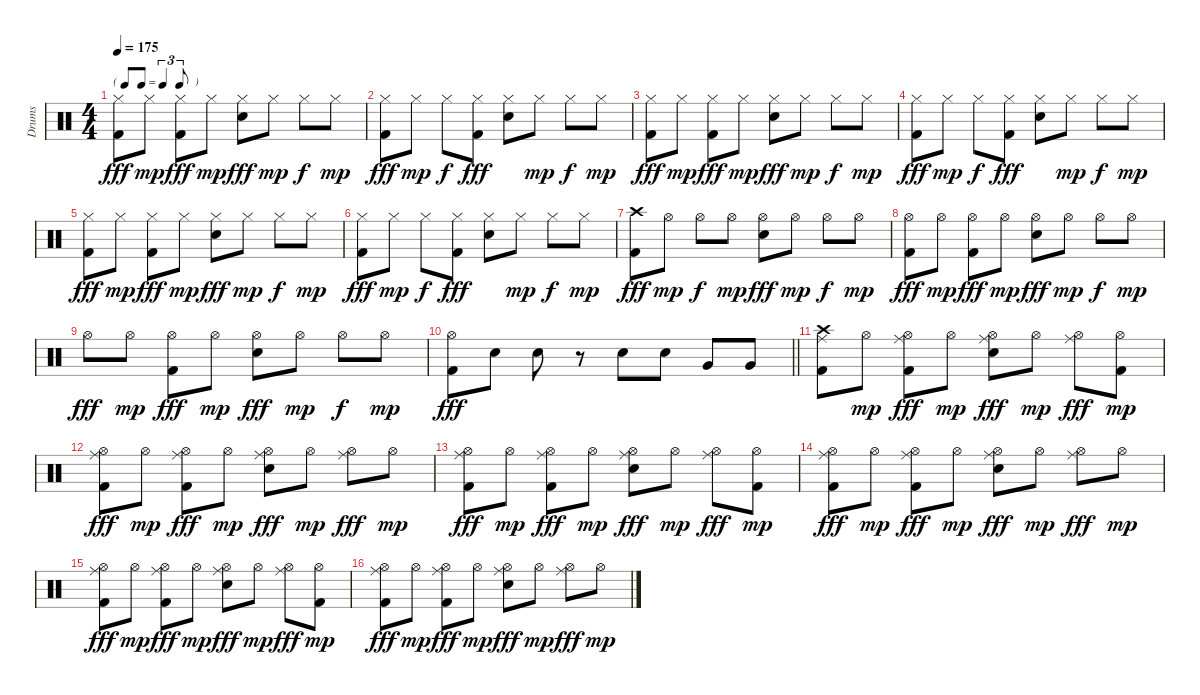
\track ("Drums" "Drums") {instrument percussion}
\staff {score}
\articulation defaults
\ts (4 4)
\tf triplet8th
\tempo 175
\clef neutral
\ks c
("Hi-Hat (closed)" "Kick (hit) 2").8{dy fff} "Hi-Hat (closed)".8{dy mp} ("Hi-Hat (closed)" "Kick (hit) 2").8{dy fff} "Hi-Hat (closed)".8{dy mp} ("Hi-Hat (closed)" "Electric Snare (hit)").8{dy fff} "Hi-Hat (closed)".8{dy mp} "Hi-Hat (closed)".8{dy f} "Hi-Hat (closed)".8{dy mp} |
("Hi-Hat (closed)" "Kick (hit) 2").8{dy fff} "Hi-Hat (closed)".8{dy mp} "Hi-Hat (closed)".8{dy f} ("Hi-Hat (closed)" "Kick (hit) 2").8{dy fff} ("Hi-Hat (closed)" "Electric Snare (hit)").8 "Hi-Hat (closed)".8{dy mp} "Hi-Hat (closed)".8{dy f} "Hi-Hat (closed)".8{dy mp} |
("Hi-Hat (closed)" "Kick (hit) 2").8{dy fff} "Hi-Hat (closed)".8{dy mp} ("Hi-Hat (closed)" "Kick (hit) 2").8{dy fff} "Hi-Hat (closed)".8{dy mp} ("Hi-Hat (closed)" "Electric Snare (hit)").8{dy fff} "Hi-Hat (closed)".8{dy mp} "Hi-Hat (closed)".8{dy f} "Hi-Hat (closed)".8{dy mp} |
("Hi-Hat (closed)" "Kick (hit) 2").8{dy fff} "Hi-Hat (closed)".8{dy mp} "Hi-Hat (closed)".8{dy f} ("Hi-Hat (closed)" "Kick (hit) 2").8{dy fff} ("Hi-Hat (closed)" "Electric Snare (hit)").8 "Hi-Hat (closed)".8{dy mp} "Hi-Hat (closed)".8{dy f} "Hi-Hat (closed)".8{dy mp} |
("Hi-Hat (closed)" "Kick (hit) 2").8{dy fff} "Hi-Hat (closed)".8{dy mp} ("Hi-Hat (closed)" "Kick (hit) 2").8{dy fff} "Hi-Hat (closed)".8{dy mp} ("Hi-Hat (closed)" "Electric Snare (hit)").8{dy fff} "Hi-Hat (closed)".8{dy mp} "Hi-Hat (closed)".8{dy f} "Hi-Hat (closed)".8{dy mp} |
("Hi-Hat (closed)" "Kick (hit) 2").8{dy fff} "Hi-Hat (closed)".8{dy mp} "Hi-Hat (closed)".8{dy f} ("Hi-Hat (closed)" "Kick (hit) 2").8{dy fff} ("Hi-Hat (closed)" "Electric Snare (hit)").8 "Hi-Hat (closed)".8{dy mp} "Hi-Hat (closed)".8{dy f} "Hi-Hat (closed)".8{dy mp} |
("Crash high (hit)" "Kick (hit) 2").8{dy fff} "Hi-Hat (open)".8{dy mp} "Hi-Hat (open)".8{dy f} "Hi-Hat (open)".8{dy mp} ("Hi-Hat (open)" "Electric Snare (hit)").8{dy fff} "Hi-Hat (open)".8{dy mp} "Hi-Hat (open)".8{dy f} "Hi-Hat (open)".8{dy mp} |
("Hi-Hat (open)" "Kick (hit) 2").8{dy fff} "Hi-Hat (open)".8{dy mp} ("Hi-Hat (open)" "Kick (hit) 2").8{dy fff} "Hi-Hat (open)".8{dy mp} ("Hi-Hat (open)" "Electric Snare (hit)").8{dy fff} "Hi-Hat (open)".8{dy mp} "Hi-Hat (open)".8{dy f} "Hi-Hat (open)".8{dy mp} |
"Hi-Hat (open)".8{dy fff} "Hi-Hat (open)".8{dy mp} ("Hi-Hat (open)" "Kick (hit) 2").8{dy fff} "Hi-Hat (open)".8{dy mp} ("Hi-Hat (open)" "Electric Snare (hit)").8{dy fff} "Hi-Hat (open)".8{dy mp} "Hi-Hat (open)".8{dy f} "Hi-Hat (open)".8{dy mp} |
\barLineRight lightlight
("Hi-Hat (open)" "Kick (hit) 2").8{dy fff} "Electric Snare (hit)".8 "Electric Snare (hit)".8 r.8 "Electric Snare (hit)".8 "Electric Snare (hit)".8 "Very Low Tom (hit)".8 "Very Low Tom (hit)".8 |
("Crash high (hit)" "Ride (middle)" "Kick (hit) 2").8 "Hi-Hat (open)".8{dy mp} ("Hi-Hat (open)" "Ride (middle)" "Kick (hit) 2").8{dy fff} "Hi-Hat (open)".8{dy mp} ("Hi-Hat (open)" "Ride (middle)" "Electric Snare (hit)").8{dy fff} "Hi-Hat (open)".8{dy mp} ("Hi-Hat (open)" "Ride (middle)").8{dy fff} ("Hi-Hat (open)" "Kick (hit) 2").8{dy mp} |
("Hi-Hat (open)" "Ride (middle)" "Kick (hit) 2").8{dy fff} "Hi-Hat (open)".8{dy mp} ("Hi-Hat (open)" "Ride (middle)" "Kick (hit) 2").8{dy fff} "Hi-Hat (open)".8{dy mp} ("Hi-Hat (open)" "Ride (middle)" "Electric Snare (hit)").8{dy fff} "Hi-Hat (open)".8{dy mp} ("Hi-Hat (open)" "Ride (middle)").8{dy fff} "Hi-Hat (open)".8{dy mp} |
("Hi-Hat (open)" "Ride (middle)" "Kick (hit) 2").8{dy fff} "Hi-Hat (open)".8{dy mp} ("Hi-Hat (open)" "Ride (middle)" "Kick (hit) 2").8{dy fff} "Hi-Hat (open)".8{dy mp} ("Hi-Hat (open)" "Ride (middle)" "Electric Snare (hit)").8{dy fff} "Hi-Hat (open)".8{dy mp} ("Hi-Hat (open)" "Ride (middle)").8{dy fff} ("Hi-Hat (open)" "Kick (hit) 2").8{dy mp} |
("Hi-Hat (open)" "Ride (middle)" "Kick (hit) 2").8{dy fff} "Hi-Hat (open)".8{dy mp} ("Hi-Hat (open)" "Ride (middle)" "Kick (hit) 2").8{dy fff} "Hi-Hat (open)".8{dy mp} ("Hi-Hat (open)" "Ride (middle)" "Electric Snare (hit)").8{dy fff} "Hi-Hat (open)".8{dy mp} ("Hi-Hat (open)" "Ride (middle)").8{dy fff} "Hi-Hat (open)".8{dy mp} |
("Hi-Hat (open)" "Ride (middle)" "Kick (hit) 2").8{dy fff} "Hi-Hat (open)".8{dy mp} ("Hi-Hat (open)" "Ride (middle)" "Kick (hit) 2").8{dy fff} "Hi-Hat (open)".8{dy mp} ("Hi-Hat (open)" "Ride (middle)" "Electric Snare (hit)").8{dy fff} "Hi-Hat (open)".8{dy mp} ("Hi-Hat (open)" "Ride (middle)").8{dy fff} ("Hi-Hat (open)" "Kick (hit) 2").8{dy mp} |
("Hi-Hat (open)" "Ride (middle)" "Kick (hit) 2").8{dy fff} "Hi-Hat (open)".8{dy mp} ("Hi-Hat (open)" "Ride (middle)" "Kick (hit) 2").8{dy fff} "Hi-Hat (open)".8{dy mp} ("Hi-Hat (open)" "Ride (middle)" "Electric Snare (hit)").8{dy fff} "Hi-Hat (open)".8{dy mp} ("Hi-Hat (open)" "Ride (middle)").8{dy fff} "Hi-Hat (open)".8{dy mp}
